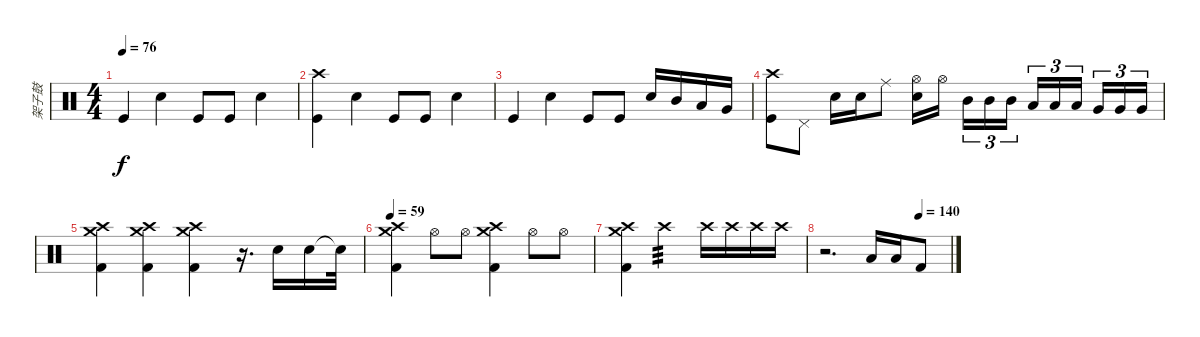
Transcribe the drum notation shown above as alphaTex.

\track ("架子鼓" "架子鼓") {instrument percussion}
\staff {score}
\articulation defaults
\ts (4 4)
\tempo 76
\clef neutral
\ks c "Kick (hit)".4{dy f} "Electric Snare (hit)".4 "Kick (hit)".8 "Kick (hit)".8 "Electric Snare (hit)".4
|
("Crash high (hit)" "Kick (hit)").4 "Electric Snare (hit)".4 "Kick (hit)".8 "Kick (hit)".8 "Electric Snare (hit)".4 |
"Kick (hit)".4 "Electric Snare (hit)".4 "Kick (hit)".8 "Kick (hit)".8 "Electric Snare (hit)".16 "Mid Tom (hit)".16 "Low Tom (hit)".16 "Very Low Tom (hit)".16 |
("Crash high (hit)" "Kick (hit)").8 "Pedal Hi-Hat (hit)".8 "Electric Snare (hit)".16 "Electric Snare (hit)".16 "Ride (middle)".8 ("Hi-Hat (open)" "Electric Snare (hit)").16 "Hi-Hat (open)".16{beam splitsecondary} "Mid Tom (hit)".16{tu (3 2)} "Mid Tom (hit)".16{tu (3 2)} "Mid Tom (hit)".16{tu (3 2)} "Low Tom (hit)".16{tu (3 2)} "Low Tom (hit)".16{tu (3 2)} "Low Tom (hit)".16{tu (3 2) beam splitsecondary} "Very Low Tom (hit)".16{tu (3 2)} "Very Low Tom (hit)".16{tu (3 2)} "Very Low Tom (hit)".16{tu (3 2)} |
("Crash high (hit)" "Crash medium (hit)" "Kick (hit) 2").4 ("Crash high (hit)" "Crash medium (hit)" "Kick (hit) 2").4 ("Crash high (hit)" "Crash medium (hit)" "Kick (hit) 2").4 r.16{d} "Electric Snare (hit)".16 "Electric Snare (hit)".16 "Snare (hit)"{t}.32 |
\tempo 59
("Crash high (hit)" "Crash medium (hit)" "Kick (hit) 2").4 "Hi-Hat (open)".8 "Hi-Hat (open)".8 ("Crash high (hit)" "Crash medium (hit)" "Kick (hit) 2").4 "Hi-Hat (open)".8 "Hi-Hat (open)".8 |
("Crash high (hit)" "Crash medium (hit)" "Kick (hit) 2").4 "Crash high (hit)".2{tp 3} "Crash high (hit)".16 "Crash high (hit)".16 "Crash high (hit)".16 "Crash high (hit)".16 |
\tempo (140 0.75)
r.2{d} "Low Floor Tom (hit)".16 "Low Floor Tom (hit)".16 "Kick (hit) 2".8
